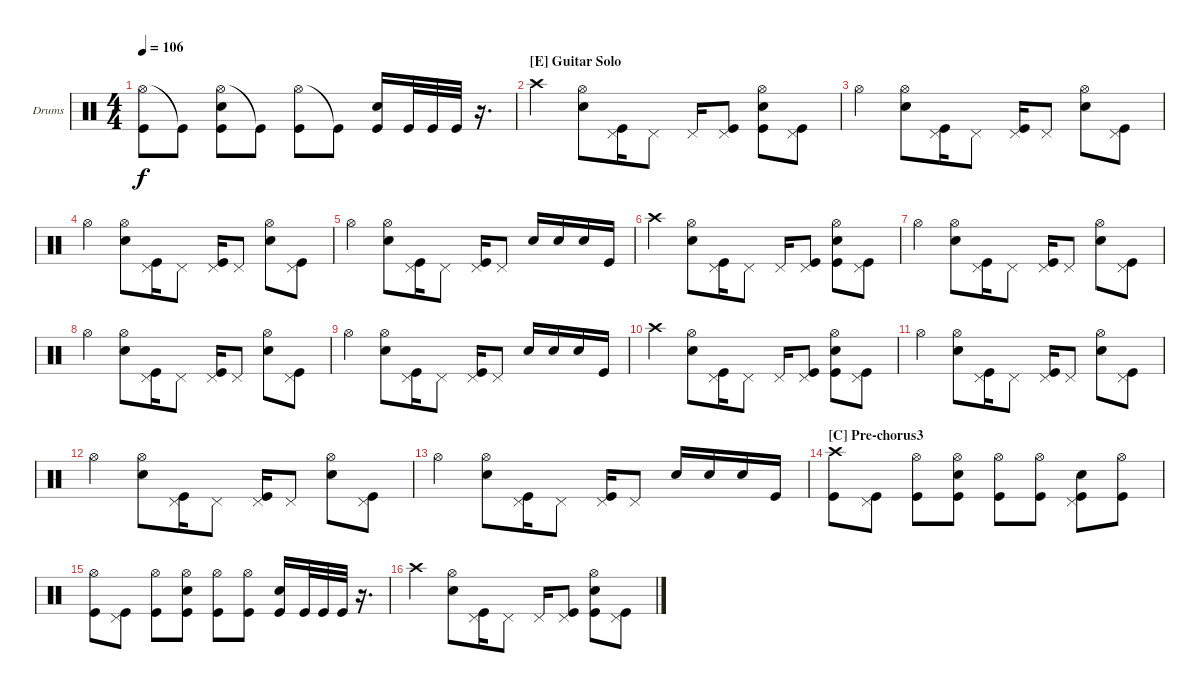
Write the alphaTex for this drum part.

\bracketExtendMode groupsimilarinstruments
\firstSystemTrackNameOrientation horizontal
\otherSystemsTrackNameOrientation horizontal
\track ("Drumkit" "Drums") {instrument percussion}
\staff {score}
\articulation defaults
\ts (4 4)
\tempo 106
\clef neutral
\ks c
("Hi-Hat (open)" "Kick (hit)").8{dy f} "Kick (hit)"{t}.8 ("Hi-Hat (open)" "Snare (hit) 2" "Kick (hit)").8 "Kick (hit)"{t}.8 ("Hi-Hat (open)" "Kick (hit)").8 "Kick (hit)"{t}.8 ("Snare (hit) 2" "Kick (hit)").16 "Kick (hit)".32 "Kick (hit)".32 "Kick (hit)".32 r.16{d} |
\section ("E" "Guitar Solo")
"Crash high (hit)".4 ("Hi-Hat (open)" "Snare (hit) 2").8 ("Pedal Hi-Hat (hit)" "Kick (hit)").16 "Pedal Hi-Hat (hit)".8 "Pedal Hi-Hat (hit)".16 ("Pedal Hi-Hat (hit)" "Kick (hit)").8 ("Hi-Hat (open)" "Snare (hit) 2" "Kick (hit)").8 ("Pedal Hi-Hat (hit)" "Kick (hit)").8 |
"Hi-Hat (open)".4 ("Hi-Hat (open)" "Snare (hit) 2").8 ("Pedal Hi-Hat (hit)" "Kick (hit)").16 "Pedal Hi-Hat (hit)".8 ("Pedal Hi-Hat (hit)" "Kick (hit)").16 "Pedal Hi-Hat (hit)".8 ("Hi-Hat (open)" "Snare (hit) 2").8 ("Pedal Hi-Hat (hit)" "Kick (hit)").8 |
"Hi-Hat (open)".4 ("Hi-Hat (open)" "Snare (hit) 2").8 ("Pedal Hi-Hat (hit)" "Kick (hit)").16 "Pedal Hi-Hat (hit)".8 ("Pedal Hi-Hat (hit)" "Kick (hit)").16 "Pedal Hi-Hat (hit)".8 ("Hi-Hat (open)" "Snare (hit) 2").8 ("Pedal Hi-Hat (hit)" "Kick (hit)").8 |
"Hi-Hat (open)".4 ("Hi-Hat (open)" "Snare (hit) 2").8 ("Pedal Hi-Hat (hit)" "Kick (hit)").16 "Pedal Hi-Hat (hit)".8 ("Pedal Hi-Hat (hit)" "Kick (hit)").16 "Pedal Hi-Hat (hit)".8 "Snare (hit) 2".16 "Snare (hit) 2".16 "Snare (hit) 2".16 "Kick (hit)".16 |
"Crash high (hit)".4 ("Hi-Hat (open)" "Snare (hit) 2").8 ("Pedal Hi-Hat (hit)" "Kick (hit)").16 "Pedal Hi-Hat (hit)".8 "Pedal Hi-Hat (hit)".16 ("Pedal Hi-Hat (hit)" "Kick (hit)").8 ("Hi-Hat (open)" "Snare (hit) 2" "Kick (hit)").8 ("Pedal Hi-Hat (hit)" "Kick (hit)").8 |
"Hi-Hat (open)".4 ("Hi-Hat (open)" "Snare (hit) 2").8 ("Pedal Hi-Hat (hit)" "Kick (hit)").16 "Pedal Hi-Hat (hit)".8 ("Pedal Hi-Hat (hit)" "Kick (hit)").16 "Pedal Hi-Hat (hit)".8 ("Hi-Hat (open)" "Snare (hit) 2").8 ("Pedal Hi-Hat (hit)" "Kick (hit)").8 |
"Hi-Hat (open)".4 ("Hi-Hat (open)" "Snare (hit) 2").8 ("Pedal Hi-Hat (hit)" "Kick (hit)").16 "Pedal Hi-Hat (hit)".8 ("Pedal Hi-Hat (hit)" "Kick (hit)").16 "Pedal Hi-Hat (hit)".8 ("Hi-Hat (open)" "Snare (hit) 2").8 ("Pedal Hi-Hat (hit)" "Kick (hit)").8 |
"Hi-Hat (open)".4 ("Hi-Hat (open)" "Snare (hit) 2").8 ("Pedal Hi-Hat (hit)" "Kick (hit)").16 "Pedal Hi-Hat (hit)".8 ("Pedal Hi-Hat (hit)" "Kick (hit)").16 "Pedal Hi-Hat (hit)".8 "Snare (hit) 2".16 "Snare (hit) 2".16 "Snare (hit) 2".16 "Kick (hit)".16 |
"Crash high (hit)".4 ("Hi-Hat (open)" "Snare (hit) 2").8 ("Pedal Hi-Hat (hit)" "Kick (hit)").16 "Pedal Hi-Hat (hit)".8 "Pedal Hi-Hat (hit)".16 ("Pedal Hi-Hat (hit)" "Kick (hit)").8 ("Hi-Hat (open)" "Snare (hit) 2" "Kick (hit)").8 ("Pedal Hi-Hat (hit)" "Kick (hit)").8 |
"Hi-Hat (open)".4 ("Hi-Hat (open)" "Snare (hit) 2").8 ("Pedal Hi-Hat (hit)" "Kick (hit)").16 "Pedal Hi-Hat (hit)".8 ("Pedal Hi-Hat (hit)" "Kick (hit)").16 "Pedal Hi-Hat (hit)".8 ("Hi-Hat (open)" "Snare (hit) 2").8 ("Pedal Hi-Hat (hit)" "Kick (hit)").8 |
"Hi-Hat (open)".4 ("Hi-Hat (open)" "Snare (hit) 2").8 ("Pedal Hi-Hat (hit)" "Kick (hit)").16 "Pedal Hi-Hat (hit)".8 ("Pedal Hi-Hat (hit)" "Kick (hit)").16 "Pedal Hi-Hat (hit)".8 ("Hi-Hat (open)" "Snare (hit) 2").8 ("Pedal Hi-Hat (hit)" "Kick (hit)").8 |
"Hi-Hat (open)".4 ("Hi-Hat (open)" "Snare (hit) 2").8 ("Pedal Hi-Hat (hit)" "Kick (hit)").16 "Pedal Hi-Hat (hit)".8 ("Pedal Hi-Hat (hit)" "Kick (hit)").16 "Pedal Hi-Hat (hit)".8 "Snare (hit) 2".16 "Snare (hit) 2".16 "Snare (hit) 2".16 "Kick (hit)".16 |
\section ("C" "Pre-chorus3")
("Crash high (hit)" "Kick (hit)").8 ("Pedal Hi-Hat (hit)" "Kick (hit)").8 ("Hi-Hat (open)" "Kick (hit)").8 ("Hi-Hat (open)" "Snare (hit) 2" "Kick (hit)").8 ("Hi-Hat (open)" "Kick (hit)").8 ("Hi-Hat (open)" "Kick (hit)").8 ("Pedal Hi-Hat (hit)" "Snare (hit) 2" "Kick (hit)").8 ("Hi-Hat (open)" "Kick (hit)").8 |
("Hi-Hat (open)" "Kick (hit)").8 ("Pedal Hi-Hat (hit)" "Kick (hit)").8 ("Hi-Hat (open)" "Kick (hit)").8 ("Hi-Hat (open)" "Snare (hit) 2" "Kick (hit)").8 ("Hi-Hat (open)" "Kick (hit)").8 ("Hi-Hat (open)" "Kick (hit)").8 ("Snare (hit) 2" "Kick (hit)").16 "Kick (hit)".32 "Kick (hit)".32 "Kick (hit)".32 r.16{d} |
"Crash high (hit)".4 ("Hi-Hat (open)" "Snare (hit) 2").8 ("Pedal Hi-Hat (hit)" "Kick (hit)").16 "Pedal Hi-Hat (hit)".8 "Pedal Hi-Hat (hit)".16 ("Pedal Hi-Hat (hit)" "Kick (hit)").8 ("Hi-Hat (open)" "Snare (hit) 2" "Kick (hit)").8 ("Pedal Hi-Hat (hit)" "Kick (hit)").8
